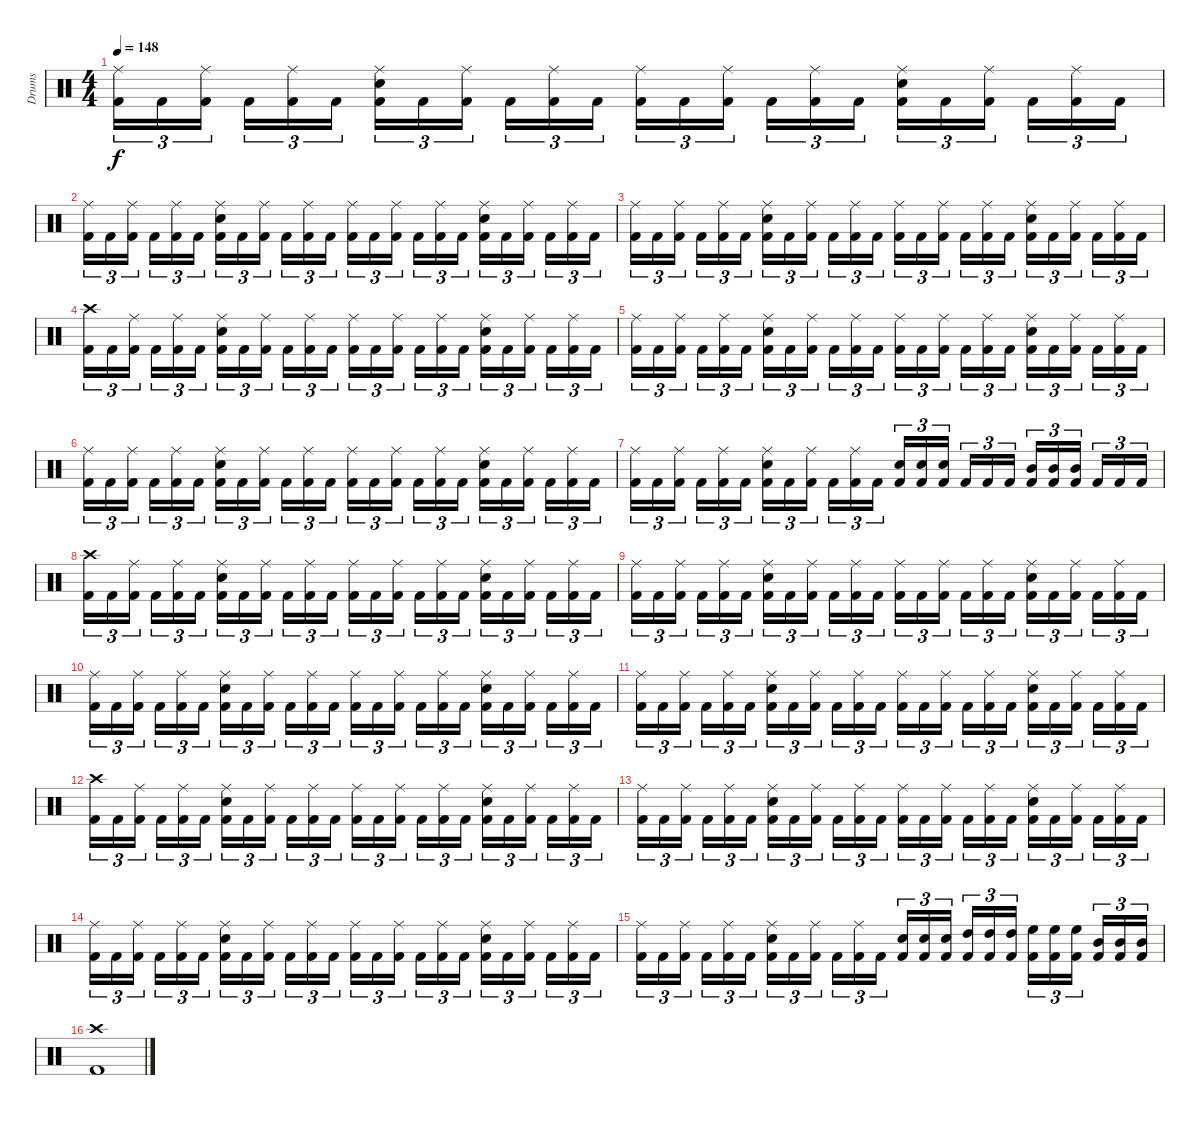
\track ("Drums" "Drums") {instrument percussion}
\staff {score}
\articulation defaults
\ts (4 4)
\tempo 148
\clef neutral
\ks c
("Ride (middle)" "Kick (hit) 2").16{tu (3 2) dy f} "Kick (hit) 2".16{tu (3 2)} ("Ride (middle)" "Kick (hit) 2").16{tu (3 2)} "Kick (hit) 2".16{tu (3 2)} ("Ride (middle)" "Kick (hit) 2").16{tu (3 2)} "Kick (hit) 2".16{tu (3 2)} ("Ride (middle)" "Snare (hit) 2" "Kick (hit) 2").16{tu (3 2)} "Kick (hit) 2".16{tu (3 2)} ("Ride (middle)" "Kick (hit) 2").16{tu (3 2)} "Kick (hit) 2".16{tu (3 2)} ("Ride (middle)" "Kick (hit) 2").16{tu (3 2)} "Kick (hit) 2".16{tu (3 2)} ("Ride (middle)" "Kick (hit) 2").16{tu (3 2)} "Kick (hit) 2".16{tu (3 2)} ("Ride (middle)" "Kick (hit) 2").16{tu (3 2)} "Kick (hit) 2".16{tu (3 2)} ("Ride (middle)" "Kick (hit) 2").16{tu (3 2)} "Kick (hit) 2".16{tu (3 2)} ("Ride (middle)" "Snare (hit) 2" "Kick (hit) 2").16{tu (3 2)} "Kick (hit) 2".16{tu (3 2)} ("Ride (middle)" "Kick (hit) 2").16{tu (3 2)} "Kick (hit) 2".16{tu (3 2)} ("Ride (middle)" "Kick (hit) 2").16{tu (3 2)} "Kick (hit) 2".16{tu (3 2)} |
("Ride (middle)" "Kick (hit) 2").16{tu (3 2)} "Kick (hit) 2".16{tu (3 2)} ("Ride (middle)" "Kick (hit) 2").16{tu (3 2)} "Kick (hit) 2".16{tu (3 2)} ("Ride (middle)" "Kick (hit) 2").16{tu (3 2)} "Kick (hit) 2".16{tu (3 2)} ("Ride (middle)" "Snare (hit) 2" "Kick (hit) 2").16{tu (3 2)} "Kick (hit) 2".16{tu (3 2)} ("Ride (middle)" "Kick (hit) 2").16{tu (3 2)} "Kick (hit) 2".16{tu (3 2)} ("Ride (middle)" "Kick (hit) 2").16{tu (3 2)} "Kick (hit) 2".16{tu (3 2)} ("Ride (middle)" "Kick (hit) 2").16{tu (3 2)} "Kick (hit) 2".16{tu (3 2)} ("Ride (middle)" "Kick (hit) 2").16{tu (3 2)} "Kick (hit) 2".16{tu (3 2)} ("Ride (middle)" "Kick (hit) 2").16{tu (3 2)} "Kick (hit) 2".16{tu (3 2)} ("Ride (middle)" "Snare (hit) 2" "Kick (hit) 2").16{tu (3 2)} "Kick (hit) 2".16{tu (3 2)} ("Ride (middle)" "Kick (hit) 2").16{tu (3 2)} "Kick (hit) 2".16{tu (3 2)} ("Ride (middle)" "Kick (hit) 2").16{tu (3 2)} "Kick (hit) 2".16{tu (3 2)} |
("Ride (middle)" "Kick (hit) 2").16{tu (3 2)} "Kick (hit) 2".16{tu (3 2)} ("Ride (middle)" "Kick (hit) 2").16{tu (3 2)} "Kick (hit) 2".16{tu (3 2)} ("Ride (middle)" "Kick (hit) 2").16{tu (3 2)} "Kick (hit) 2".16{tu (3 2)} ("Ride (middle)" "Snare (hit) 2" "Kick (hit) 2").16{tu (3 2)} "Kick (hit) 2".16{tu (3 2)} ("Ride (middle)" "Kick (hit) 2").16{tu (3 2)} "Kick (hit) 2".16{tu (3 2)} ("Ride (middle)" "Kick (hit) 2").16{tu (3 2)} "Kick (hit) 2".16{tu (3 2)} ("Ride (middle)" "Kick (hit) 2").16{tu (3 2)} "Kick (hit) 2".16{tu (3 2)} ("Ride (middle)" "Kick (hit) 2").16{tu (3 2)} "Kick (hit) 2".16{tu (3 2)} ("Ride (middle)" "Kick (hit) 2").16{tu (3 2)} "Kick (hit) 2".16{tu (3 2)} ("Ride (middle)" "Snare (hit) 2" "Kick (hit) 2").16{tu (3 2)} "Kick (hit) 2".16{tu (3 2)} ("Ride (middle)" "Kick (hit) 2").16{tu (3 2)} "Kick (hit) 2".16{tu (3 2)} ("Ride (middle)" "Kick (hit) 2").16{tu (3 2)} "Kick (hit) 2".16{tu (3 2)} |
("Crash high (hit)" "Kick (hit) 2").16{tu (3 2)} "Kick (hit) 2".16{tu (3 2)} ("Ride (middle)" "Kick (hit) 2").16{tu (3 2)} "Kick (hit) 2".16{tu (3 2)} ("Ride (middle)" "Kick (hit) 2").16{tu (3 2)} "Kick (hit) 2".16{tu (3 2)} ("Ride (middle)" "Snare (hit) 2" "Kick (hit) 2").16{tu (3 2)} "Kick (hit) 2".16{tu (3 2)} ("Ride (middle)" "Kick (hit) 2").16{tu (3 2)} "Kick (hit) 2".16{tu (3 2)} ("Ride (middle)" "Kick (hit) 2").16{tu (3 2)} "Kick (hit) 2".16{tu (3 2)} ("Ride (middle)" "Kick (hit) 2").16{tu (3 2)} "Kick (hit) 2".16{tu (3 2)} ("Ride (middle)" "Kick (hit) 2").16{tu (3 2)} "Kick (hit) 2".16{tu (3 2)} ("Ride (middle)" "Kick (hit) 2").16{tu (3 2)} "Kick (hit) 2".16{tu (3 2)} ("Ride (middle)" "Snare (hit) 2" "Kick (hit) 2").16{tu (3 2)} "Kick (hit) 2".16{tu (3 2)} ("Ride (middle)" "Kick (hit) 2").16{tu (3 2)} "Kick (hit) 2".16{tu (3 2)} ("Ride (middle)" "Kick (hit) 2").16{tu (3 2)} "Kick (hit) 2".16{tu (3 2)} |
("Ride (middle)" "Kick (hit) 2").16{tu (3 2)} "Kick (hit) 2".16{tu (3 2)} ("Ride (middle)" "Kick (hit) 2").16{tu (3 2)} "Kick (hit) 2".16{tu (3 2)} ("Ride (middle)" "Kick (hit) 2").16{tu (3 2)} "Kick (hit) 2".16{tu (3 2)} ("Ride (middle)" "Snare (hit) 2" "Kick (hit) 2").16{tu (3 2)} "Kick (hit) 2".16{tu (3 2)} ("Ride (middle)" "Kick (hit) 2").16{tu (3 2)} "Kick (hit) 2".16{tu (3 2)} ("Ride (middle)" "Kick (hit) 2").16{tu (3 2)} "Kick (hit) 2".16{tu (3 2)} ("Ride (middle)" "Kick (hit) 2").16{tu (3 2)} "Kick (hit) 2".16{tu (3 2)} ("Ride (middle)" "Kick (hit) 2").16{tu (3 2)} "Kick (hit) 2".16{tu (3 2)} ("Ride (middle)" "Kick (hit) 2").16{tu (3 2)} "Kick (hit) 2".16{tu (3 2)} ("Ride (middle)" "Snare (hit) 2" "Kick (hit) 2").16{tu (3 2)} "Kick (hit) 2".16{tu (3 2)} ("Ride (middle)" "Kick (hit) 2").16{tu (3 2)} "Kick (hit) 2".16{tu (3 2)} ("Ride (middle)" "Kick (hit) 2").16{tu (3 2)} "Kick (hit) 2".16{tu (3 2)} |
("Ride (middle)" "Kick (hit) 2").16{tu (3 2)} "Kick (hit) 2".16{tu (3 2)} ("Ride (middle)" "Kick (hit) 2").16{tu (3 2)} "Kick (hit) 2".16{tu (3 2)} ("Ride (middle)" "Kick (hit) 2").16{tu (3 2)} "Kick (hit) 2".16{tu (3 2)} ("Ride (middle)" "Snare (hit) 2" "Kick (hit) 2").16{tu (3 2)} "Kick (hit) 2".16{tu (3 2)} ("Ride (middle)" "Kick (hit) 2").16{tu (3 2)} "Kick (hit) 2".16{tu (3 2)} ("Ride (middle)" "Kick (hit) 2").16{tu (3 2)} "Kick (hit) 2".16{tu (3 2)} ("Ride (middle)" "Kick (hit) 2").16{tu (3 2)} "Kick (hit) 2".16{tu (3 2)} ("Ride (middle)" "Kick (hit) 2").16{tu (3 2)} "Kick (hit) 2".16{tu (3 2)} ("Ride (middle)" "Kick (hit) 2").16{tu (3 2)} "Kick (hit) 2".16{tu (3 2)} ("Ride (middle)" "Snare (hit) 2" "Kick (hit) 2").16{tu (3 2)} "Kick (hit) 2".16{tu (3 2)} ("Ride (middle)" "Kick (hit) 2").16{tu (3 2)} "Kick (hit) 2".16{tu (3 2)} ("Ride (middle)" "Kick (hit) 2").16{tu (3 2)} "Kick (hit) 2".16{tu (3 2)} |
("Ride (middle)" "Kick (hit) 2").16{tu (3 2)} "Kick (hit) 2".16{tu (3 2)} ("Ride (middle)" "Kick (hit) 2").16{tu (3 2)} "Kick (hit) 2".16{tu (3 2)} ("Ride (middle)" "Kick (hit) 2").16{tu (3 2)} "Kick (hit) 2".16{tu (3 2)} ("Ride (middle)" "Snare (hit) 2" "Kick (hit) 2").16{tu (3 2)} "Kick (hit) 2".16{tu (3 2)} ("Ride (middle)" "Kick (hit) 2").16{tu (3 2)} "Kick (hit) 2".16{tu (3 2)} ("Ride (middle)" "Kick (hit) 2").16{tu (3 2)} "Kick (hit) 2".16{tu (3 2)} ("Snare (hit) 2" "Kick (hit) 2").16{tu (3 2)} ("Snare (hit) 2" "Kick (hit) 2").16{tu (3 2)} ("Snare (hit) 2" "Kick (hit) 2").16{tu (3 2)} "Kick (hit) 2".16{tu (3 2)} "Kick (hit) 2".16{tu (3 2)} "Kick (hit) 2".16{tu (3 2)} ("Mid Tom (hit)" "Kick (hit) 2").16{tu (3 2)} ("Mid Tom (hit)" "Kick (hit) 2").16{tu (3 2)} ("Mid Tom (hit)" "Kick (hit) 2").16{tu (3 2)} "Kick (hit) 2".16{tu (3 2)} "Kick (hit) 2".16{tu (3 2)} "Kick (hit) 2".16{tu (3 2)} |
("Crash high (hit)" "Kick (hit) 2").16{tu (3 2)} "Kick (hit) 2".16{tu (3 2)} ("Ride (middle)" "Kick (hit) 2").16{tu (3 2)} "Kick (hit) 2".16{tu (3 2)} ("Ride (middle)" "Kick (hit) 2").16{tu (3 2)} "Kick (hit) 2".16{tu (3 2)} ("Ride (middle)" "Snare (hit) 2" "Kick (hit) 2").16{tu (3 2)} "Kick (hit) 2".16{tu (3 2)} ("Ride (middle)" "Kick (hit) 2").16{tu (3 2)} "Kick (hit) 2".16{tu (3 2)} ("Ride (middle)" "Kick (hit) 2").16{tu (3 2)} "Kick (hit) 2".16{tu (3 2)} ("Ride (middle)" "Kick (hit) 2").16{tu (3 2)} "Kick (hit) 2".16{tu (3 2)} ("Ride (middle)" "Kick (hit) 2").16{tu (3 2)} "Kick (hit) 2".16{tu (3 2)} ("Ride (middle)" "Kick (hit) 2").16{tu (3 2)} "Kick (hit) 2".16{tu (3 2)} ("Ride (middle)" "Snare (hit) 2" "Kick (hit) 2").16{tu (3 2)} "Kick (hit) 2".16{tu (3 2)} ("Ride (middle)" "Kick (hit) 2").16{tu (3 2)} "Kick (hit) 2".16{tu (3 2)} ("Ride (middle)" "Kick (hit) 2").16{tu (3 2)} "Kick (hit) 2".16{tu (3 2)} |
("Ride (middle)" "Kick (hit) 2").16{tu (3 2)} "Kick (hit) 2".16{tu (3 2)} ("Ride (middle)" "Kick (hit) 2").16{tu (3 2)} "Kick (hit) 2".16{tu (3 2)} ("Ride (middle)" "Kick (hit) 2").16{tu (3 2)} "Kick (hit) 2".16{tu (3 2)} ("Ride (middle)" "Snare (hit) 2" "Kick (hit) 2").16{tu (3 2)} "Kick (hit) 2".16{tu (3 2)} ("Ride (middle)" "Kick (hit) 2").16{tu (3 2)} "Kick (hit) 2".16{tu (3 2)} ("Ride (middle)" "Kick (hit) 2").16{tu (3 2)} "Kick (hit) 2".16{tu (3 2)} ("Ride (middle)" "Kick (hit) 2").16{tu (3 2)} "Kick (hit) 2".16{tu (3 2)} ("Ride (middle)" "Kick (hit) 2").16{tu (3 2)} "Kick (hit) 2".16{tu (3 2)} ("Ride (middle)" "Kick (hit) 2").16{tu (3 2)} "Kick (hit) 2".16{tu (3 2)} ("Ride (middle)" "Snare (hit) 2" "Kick (hit) 2").16{tu (3 2)} "Kick (hit) 2".16{tu (3 2)} ("Ride (middle)" "Kick (hit) 2").16{tu (3 2)} "Kick (hit) 2".16{tu (3 2)} ("Ride (middle)" "Kick (hit) 2").16{tu (3 2)} "Kick (hit) 2".16{tu (3 2)} |
("Ride (middle)" "Kick (hit) 2").16{tu (3 2)} "Kick (hit) 2".16{tu (3 2)} ("Ride (middle)" "Kick (hit) 2").16{tu (3 2)} "Kick (hit) 2".16{tu (3 2)} ("Ride (middle)" "Kick (hit) 2").16{tu (3 2)} "Kick (hit) 2".16{tu (3 2)} ("Ride (middle)" "Snare (hit) 2" "Kick (hit) 2").16{tu (3 2)} "Kick (hit) 2".16{tu (3 2)} ("Ride (middle)" "Kick (hit) 2").16{tu (3 2)} "Kick (hit) 2".16{tu (3 2)} ("Ride (middle)" "Kick (hit) 2").16{tu (3 2)} "Kick (hit) 2".16{tu (3 2)} ("Ride (middle)" "Kick (hit) 2").16{tu (3 2)} "Kick (hit) 2".16{tu (3 2)} ("Ride (middle)" "Kick (hit) 2").16{tu (3 2)} "Kick (hit) 2".16{tu (3 2)} ("Ride (middle)" "Kick (hit) 2").16{tu (3 2)} "Kick (hit) 2".16{tu (3 2)} ("Ride (middle)" "Snare (hit) 2" "Kick (hit) 2").16{tu (3 2)} "Kick (hit) 2".16{tu (3 2)} ("Ride (middle)" "Kick (hit) 2").16{tu (3 2)} "Kick (hit) 2".16{tu (3 2)} ("Ride (middle)" "Kick (hit) 2").16{tu (3 2)} "Kick (hit) 2".16{tu (3 2)} |
("Ride (middle)" "Kick (hit) 2").16{tu (3 2)} "Kick (hit) 2".16{tu (3 2)} ("Ride (middle)" "Kick (hit) 2").16{tu (3 2)} "Kick (hit) 2".16{tu (3 2)} ("Ride (middle)" "Kick (hit) 2").16{tu (3 2)} "Kick (hit) 2".16{tu (3 2)} ("Ride (middle)" "Snare (hit) 2" "Kick (hit) 2").16{tu (3 2)} "Kick (hit) 2".16{tu (3 2)} ("Ride (middle)" "Kick (hit) 2").16{tu (3 2)} "Kick (hit) 2".16{tu (3 2)} ("Ride (middle)" "Kick (hit) 2").16{tu (3 2)} "Kick (hit) 2".16{tu (3 2)} ("Ride (middle)" "Kick (hit) 2").16{tu (3 2)} "Kick (hit) 2".16{tu (3 2)} ("Ride (middle)" "Kick (hit) 2").16{tu (3 2)} "Kick (hit) 2".16{tu (3 2)} ("Ride (middle)" "Kick (hit) 2").16{tu (3 2)} "Kick (hit) 2".16{tu (3 2)} ("Ride (middle)" "Snare (hit) 2" "Kick (hit) 2").16{tu (3 2)} "Kick (hit) 2".16{tu (3 2)} ("Ride (middle)" "Kick (hit) 2").16{tu (3 2)} "Kick (hit) 2".16{tu (3 2)} ("Ride (middle)" "Kick (hit) 2").16{tu (3 2)} "Kick (hit) 2".16{tu (3 2)} |
("Crash high (hit)" "Kick (hit) 2").16{tu (3 2)} "Kick (hit) 2".16{tu (3 2)} ("Ride (middle)" "Kick (hit) 2").16{tu (3 2)} "Kick (hit) 2".16{tu (3 2)} ("Ride (middle)" "Kick (hit) 2").16{tu (3 2)} "Kick (hit) 2".16{tu (3 2)} ("Ride (middle)" "Snare (hit) 2" "Kick (hit) 2").16{tu (3 2)} "Kick (hit) 2".16{tu (3 2)} ("Ride (middle)" "Kick (hit) 2").16{tu (3 2)} "Kick (hit) 2".16{tu (3 2)} ("Ride (middle)" "Kick (hit) 2").16{tu (3 2)} "Kick (hit) 2".16{tu (3 2)} ("Ride (middle)" "Kick (hit) 2").16{tu (3 2)} "Kick (hit) 2".16{tu (3 2)} ("Ride (middle)" "Kick (hit) 2").16{tu (3 2)} "Kick (hit) 2".16{tu (3 2)} ("Ride (middle)" "Kick (hit) 2").16{tu (3 2)} "Kick (hit) 2".16{tu (3 2)} ("Ride (middle)" "Snare (hit) 2" "Kick (hit) 2").16{tu (3 2)} "Kick (hit) 2".16{tu (3 2)} ("Ride (middle)" "Kick (hit) 2").16{tu (3 2)} "Kick (hit) 2".16{tu (3 2)} ("Ride (middle)" "Kick (hit) 2").16{tu (3 2)} "Kick (hit) 2".16{tu (3 2)} |
("Ride (middle)" "Kick (hit) 2").16{tu (3 2)} "Kick (hit) 2".16{tu (3 2)} ("Ride (middle)" "Kick (hit) 2").16{tu (3 2)} "Kick (hit) 2".16{tu (3 2)} ("Ride (middle)" "Kick (hit) 2").16{tu (3 2)} "Kick (hit) 2".16{tu (3 2)} ("Ride (middle)" "Snare (hit) 2" "Kick (hit) 2").16{tu (3 2)} "Kick (hit) 2".16{tu (3 2)} ("Ride (middle)" "Kick (hit) 2").16{tu (3 2)} "Kick (hit) 2".16{tu (3 2)} ("Ride (middle)" "Kick (hit) 2").16{tu (3 2)} "Kick (hit) 2".16{tu (3 2)} ("Ride (middle)" "Kick (hit) 2").16{tu (3 2)} "Kick (hit) 2".16{tu (3 2)} ("Ride (middle)" "Kick (hit) 2").16{tu (3 2)} "Kick (hit) 2".16{tu (3 2)} ("Ride (middle)" "Kick (hit) 2").16{tu (3 2)} "Kick (hit) 2".16{tu (3 2)} ("Ride (middle)" "Snare (hit) 2" "Kick (hit) 2").16{tu (3 2)} "Kick (hit) 2".16{tu (3 2)} ("Ride (middle)" "Kick (hit) 2").16{tu (3 2)} "Kick (hit) 2".16{tu (3 2)} ("Ride (middle)" "Kick (hit) 2").16{tu (3 2)} "Kick (hit) 2".16{tu (3 2)} |
("Ride (middle)" "Kick (hit) 2").16{tu (3 2)} "Kick (hit) 2".16{tu (3 2)} ("Ride (middle)" "Kick (hit) 2").16{tu (3 2)} "Kick (hit) 2".16{tu (3 2)} ("Ride (middle)" "Kick (hit) 2").16{tu (3 2)} "Kick (hit) 2".16{tu (3 2)} ("Ride (middle)" "Snare (hit) 2" "Kick (hit) 2").16{tu (3 2)} "Kick (hit) 2".16{tu (3 2)} ("Ride (middle)" "Kick (hit) 2").16{tu (3 2)} "Kick (hit) 2".16{tu (3 2)} ("Ride (middle)" "Kick (hit) 2").16{tu (3 2)} "Kick (hit) 2".16{tu (3 2)} ("Ride (middle)" "Kick (hit) 2").16{tu (3 2)} "Kick (hit) 2".16{tu (3 2)} ("Ride (middle)" "Kick (hit) 2").16{tu (3 2)} "Kick (hit) 2".16{tu (3 2)} ("Ride (middle)" "Kick (hit) 2").16{tu (3 2)} "Kick (hit) 2".16{tu (3 2)} ("Ride (middle)" "Snare (hit) 2" "Kick (hit) 2").16{tu (3 2)} "Kick (hit) 2".16{tu (3 2)} ("Ride (middle)" "Kick (hit) 2").16{tu (3 2)} "Kick (hit) 2".16{tu (3 2)} ("Ride (middle)" "Kick (hit) 2").16{tu (3 2)} "Kick (hit) 2".16{tu (3 2)} |
("Ride (middle)" "Kick (hit) 2").16{tu (3 2)} "Kick (hit) 2".16{tu (3 2)} ("Ride (middle)" "Kick (hit) 2").16{tu (3 2)} "Kick (hit) 2".16{tu (3 2)} ("Ride (middle)" "Kick (hit) 2").16{tu (3 2)} "Kick (hit) 2".16{tu (3 2)} ("Ride (middle)" "Snare (hit) 2" "Kick (hit) 2").16{tu (3 2)} "Kick (hit) 2".16{tu (3 2)} ("Ride (middle)" "Kick (hit) 2").16{tu (3 2)} "Kick (hit) 2".16{tu (3 2)} ("Ride (middle)" "Kick (hit) 2").16{tu (3 2)} "Kick (hit) 2".16{tu (3 2)} ("Snare (hit) 2" "Kick (hit) 2").16{tu (3 2)} ("Snare (hit) 2" "Kick (hit) 2").16{tu (3 2)} ("Snare (hit) 2" "Kick (hit) 2").16{tu (3 2)} ("High Tom (hit)" "Kick (hit) 2").16{tu (3 2)} ("High Tom (hit)" "Kick (hit) 2").16{tu (3 2)} ("High Tom (hit)" "Kick (hit) 2").16{tu (3 2)} ("High Floor Tom (hit)" "Kick (hit) 2").16{tu (3 2)} ("High Floor Tom (hit)" "Kick (hit) 2").16{tu (3 2)} ("High Floor Tom (hit)" "Kick (hit) 2").16{tu (3 2)} ("Mid Tom (hit)" "Kick (hit) 2").16{tu (3 2)} ("Mid Tom (hit)" "Kick (hit) 2").16{tu (3 2)} ("Mid Tom (hit)" "Kick (hit) 2").16{tu (3 2)} |
("Crash high (hit)" "Kick (hit) 2").1
